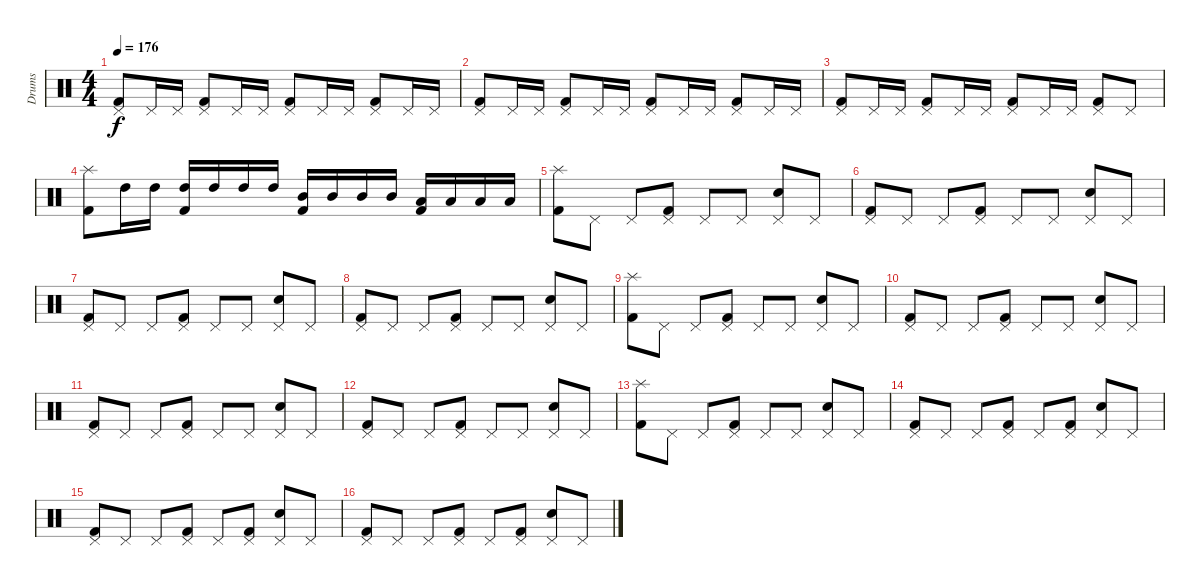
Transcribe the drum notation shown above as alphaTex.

\track ("Drums" "Drums") {instrument percussion}
\staff {score}
\articulation defaults
\ts (4 4)
\tempo 176
\clef neutral
\ks c
("Pedal Hi-Hat (hit)" "Kick (hit) 2").8{dy f} "Pedal Hi-Hat (hit)".16 "Pedal Hi-Hat (hit)".16 ("Pedal Hi-Hat (hit)" "Kick (hit) 2").8 "Pedal Hi-Hat (hit)".16 "Pedal Hi-Hat (hit)".16 ("Pedal Hi-Hat (hit)" "Kick (hit) 2").8 "Pedal Hi-Hat (hit)".16 "Pedal Hi-Hat (hit)".16 ("Pedal Hi-Hat (hit)" "Kick (hit) 2").8 "Pedal Hi-Hat (hit)".16 "Pedal Hi-Hat (hit)".16 |
("Pedal Hi-Hat (hit)" "Kick (hit) 2").8 "Pedal Hi-Hat (hit)".16 "Pedal Hi-Hat (hit)".16 ("Pedal Hi-Hat (hit)" "Kick (hit) 2").8 "Pedal Hi-Hat (hit)".16 "Pedal Hi-Hat (hit)".16 ("Pedal Hi-Hat (hit)" "Kick (hit) 2").8 "Pedal Hi-Hat (hit)".16 "Pedal Hi-Hat (hit)".16 ("Pedal Hi-Hat (hit)" "Kick (hit) 2").8 "Pedal Hi-Hat (hit)".16 "Pedal Hi-Hat (hit)".16 |
("Pedal Hi-Hat (hit)" "Kick (hit) 2").8 "Pedal Hi-Hat (hit)".16 "Pedal Hi-Hat (hit)".16 ("Pedal Hi-Hat (hit)" "Kick (hit) 2").8 "Pedal Hi-Hat (hit)".16 "Pedal Hi-Hat (hit)".16 ("Pedal Hi-Hat (hit)" "Kick (hit) 2").8 "Pedal Hi-Hat (hit)".16 "Pedal Hi-Hat (hit)".16 ("Pedal Hi-Hat (hit)" "Kick (hit) 2").8 "Pedal Hi-Hat (hit)".8 |
("Kick (hit) 2" "Splash (hit)").8 "High Tom (hit)".16 "High Tom (hit)".16 ("High Tom (hit)" "Kick (hit) 2").16 "High Tom (hit)".16 "High Tom (hit)".16 "High Tom (hit)".16 ("Mid Tom (hit)" "Kick (hit) 2").16 "Mid Tom (hit)".16 "Mid Tom (hit)".16 "Mid Tom (hit)".16 ("Low Tom (hit)" "Kick (hit) 2").16 "Low Tom (hit)".16 "Low Tom (hit)".16 "Low Tom (hit)".16 |
("Splash (hit)" "Kick (hit) 2").8 "Pedal Hi-Hat (hit)".8 "Pedal Hi-Hat (hit)".8 ("Pedal Hi-Hat (hit)" "Kick (hit) 2").8 "Pedal Hi-Hat (hit)".8 "Pedal Hi-Hat (hit)".8 ("Pedal Hi-Hat (hit)" "Snare (hit) 2").8 "Pedal Hi-Hat (hit)".8 |
("Pedal Hi-Hat (hit)" "Kick (hit) 2").8 "Pedal Hi-Hat (hit)".8 "Pedal Hi-Hat (hit)".8 ("Pedal Hi-Hat (hit)" "Kick (hit) 2").8 "Pedal Hi-Hat (hit)".8 "Pedal Hi-Hat (hit)".8 ("Pedal Hi-Hat (hit)" "Snare (hit) 2").8 "Pedal Hi-Hat (hit)".8 |
("Pedal Hi-Hat (hit)" "Kick (hit) 2").8 "Pedal Hi-Hat (hit)".8 "Pedal Hi-Hat (hit)".8 ("Pedal Hi-Hat (hit)" "Kick (hit) 2").8 "Pedal Hi-Hat (hit)".8 "Pedal Hi-Hat (hit)".8 ("Pedal Hi-Hat (hit)" "Snare (hit) 2").8 "Pedal Hi-Hat (hit)".8 |
("Pedal Hi-Hat (hit)" "Kick (hit) 2").8 "Pedal Hi-Hat (hit)".8 "Pedal Hi-Hat (hit)".8 ("Pedal Hi-Hat (hit)" "Kick (hit) 2").8 "Pedal Hi-Hat (hit)".8 "Pedal Hi-Hat (hit)".8 ("Pedal Hi-Hat (hit)" "Snare (hit) 2").8 "Pedal Hi-Hat (hit)".8 |
("Splash (hit)" "Kick (hit) 2").8 "Pedal Hi-Hat (hit)".8 "Pedal Hi-Hat (hit)".8 ("Pedal Hi-Hat (hit)" "Kick (hit) 2").8 "Pedal Hi-Hat (hit)".8 "Pedal Hi-Hat (hit)".8 ("Pedal Hi-Hat (hit)" "Snare (hit) 2").8 "Pedal Hi-Hat (hit)".8 |
("Pedal Hi-Hat (hit)" "Kick (hit) 2").8 "Pedal Hi-Hat (hit)".8 "Pedal Hi-Hat (hit)".8 ("Pedal Hi-Hat (hit)" "Kick (hit) 2").8 "Pedal Hi-Hat (hit)".8 "Pedal Hi-Hat (hit)".8 ("Pedal Hi-Hat (hit)" "Snare (hit) 2").8 "Pedal Hi-Hat (hit)".8 |
("Pedal Hi-Hat (hit)" "Kick (hit) 2").8 "Pedal Hi-Hat (hit)".8 "Pedal Hi-Hat (hit)".8 ("Pedal Hi-Hat (hit)" "Kick (hit) 2").8 "Pedal Hi-Hat (hit)".8 "Pedal Hi-Hat (hit)".8 ("Pedal Hi-Hat (hit)" "Snare (hit) 2").8 "Pedal Hi-Hat (hit)".8 |
("Pedal Hi-Hat (hit)" "Kick (hit) 2").8 "Pedal Hi-Hat (hit)".8 "Pedal Hi-Hat (hit)".8 ("Pedal Hi-Hat (hit)" "Kick (hit) 2").8 "Pedal Hi-Hat (hit)".8 "Pedal Hi-Hat (hit)".8 ("Pedal Hi-Hat (hit)" "Snare (hit) 2").8 "Pedal Hi-Hat (hit)".8 |
("Splash (hit)" "Kick (hit) 2").8 "Pedal Hi-Hat (hit)".8 "Pedal Hi-Hat (hit)".8 ("Pedal Hi-Hat (hit)" "Kick (hit) 2").8 "Pedal Hi-Hat (hit)".8 "Pedal Hi-Hat (hit)".8 ("Snare (hit) 2" "Pedal Hi-Hat (hit)").8 "Pedal Hi-Hat (hit)".8 |
("Pedal Hi-Hat (hit)" "Kick (hit) 2").8 "Pedal Hi-Hat (hit)".8 "Pedal Hi-Hat (hit)".8 ("Kick (hit) 2" "Pedal Hi-Hat (hit)").8 "Pedal Hi-Hat (hit)".8 ("Pedal Hi-Hat (hit)" "Kick (hit) 2").8 ("Snare (hit) 2" "Pedal Hi-Hat (hit)").8 "Pedal Hi-Hat (hit)".8 |
("Pedal Hi-Hat (hit)" "Kick (hit) 2").8 "Pedal Hi-Hat (hit)".8 "Pedal Hi-Hat (hit)".8 ("Kick (hit) 2" "Pedal Hi-Hat (hit)").8 "Pedal Hi-Hat (hit)".8 ("Pedal Hi-Hat (hit)" "Kick (hit) 2").8 ("Snare (hit) 2" "Pedal Hi-Hat (hit)").8 "Pedal Hi-Hat (hit)".8 |
("Pedal Hi-Hat (hit)" "Kick (hit) 2").8 "Pedal Hi-Hat (hit)".8 "Pedal Hi-Hat (hit)".8 ("Kick (hit) 2" "Pedal Hi-Hat (hit)").8 "Pedal Hi-Hat (hit)".8 ("Pedal Hi-Hat (hit)" "Kick (hit) 2").8 ("Snare (hit) 2" "Pedal Hi-Hat (hit)").8 "Pedal Hi-Hat (hit)".8
